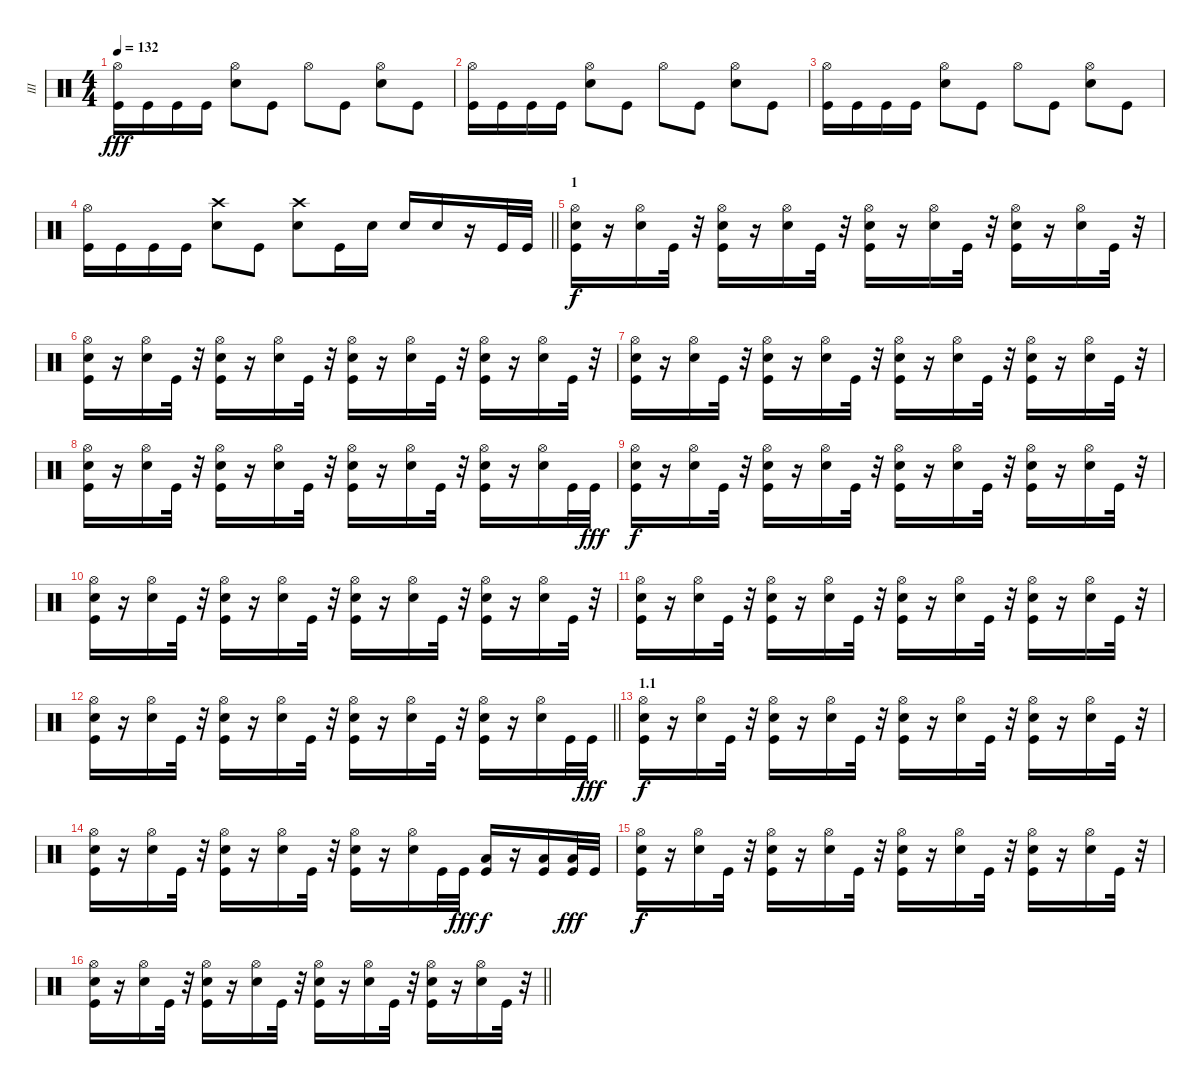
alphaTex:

\track ("III" "III") {instrument percussion}
\staff {score}
\articulation defaults
\ts (4 4)
\tempo 132
\clef neutral
\ks c
("Kick (hit)" "Hi-Hat (open)").16{dy fff} "Kick (hit)".16 "Kick (hit)".16 "Kick (hit)".16 ("Snare (hit) 2" "Hi-Hat (open)").8 "Kick (hit)".8 "Hi-Hat (open)".8 "Kick (hit)".8 ("Snare (hit) 2" "Hi-Hat (open)").8 "Kick (hit)".8 |
("Kick (hit)" "Hi-Hat (open)").16 "Kick (hit)".16 "Kick (hit)".16 "Kick (hit)".16 ("Snare (hit) 2" "Hi-Hat (open)").8 "Kick (hit)".8 "Hi-Hat (open)".8 "Kick (hit)".8 ("Snare (hit) 2" "Hi-Hat (open)").8 "Kick (hit)".8 |
("Kick (hit)" "Hi-Hat (open)").16 "Kick (hit)".16 "Kick (hit)".16 "Kick (hit)".16 ("Snare (hit) 2" "Hi-Hat (open)").8 "Kick (hit)".8 "Hi-Hat (open)".8 "Kick (hit)".8 ("Snare (hit) 2" "Hi-Hat (open)").8 "Kick (hit)".8 |
\barLineRight lightlight
("Kick (hit)" "Hi-Hat (open)").16 "Kick (hit)".16 "Kick (hit)".16 "Kick (hit)".16 ("Snare (hit) 2" "Crash high (hit)").8 "Kick (hit)".8 ("Snare (hit) 2" "Crash high (hit)").8 "Kick (hit)".16 "Snare (hit) 2".16 "Snare (hit) 2".16 "Snare (hit) 2".16 r.16 "Kick (hit)".32 "Kick (hit)".32 |
\section ("" "1")
("Hi-Hat (open)" "Kick (hit)" "Snare (hit) 2").16{dy f} r.16 ("Hi-Hat (open)" "Snare (hit) 2").16 "Kick (hit)".32 r.32 ("Hi-Hat (open)" "Kick (hit)" "Snare (hit) 2").16 r.16 ("Hi-Hat (open)" "Snare (hit) 2").16 "Kick (hit)".32 r.32 ("Hi-Hat (open)" "Kick (hit)" "Snare (hit) 2").16 r.16 ("Hi-Hat (open)" "Snare (hit) 2").16 "Kick (hit)".32 r.32 ("Hi-Hat (open)" "Kick (hit)" "Snare (hit) 2").16 r.16 ("Hi-Hat (open)" "Snare (hit) 2").16 "Kick (hit)".32 r.32 |
("Hi-Hat (open)" "Kick (hit)" "Snare (hit) 2").16 r.16 ("Hi-Hat (open)" "Snare (hit) 2").16 "Kick (hit)".32 r.32 ("Hi-Hat (open)" "Kick (hit)" "Snare (hit) 2").16 r.16 ("Hi-Hat (open)" "Snare (hit) 2").16 "Kick (hit)".32 r.32 ("Hi-Hat (open)" "Kick (hit)" "Snare (hit) 2").16 r.16 ("Hi-Hat (open)" "Snare (hit) 2").16 "Kick (hit)".32 r.32 ("Hi-Hat (open)" "Kick (hit)" "Snare (hit) 2").16 r.16 ("Hi-Hat (open)" "Snare (hit) 2").16 "Kick (hit)".32 r.32 |
("Hi-Hat (open)" "Kick (hit)" "Snare (hit) 2").16 r.16 ("Hi-Hat (open)" "Snare (hit) 2").16 "Kick (hit)".32 r.32 ("Hi-Hat (open)" "Kick (hit)" "Snare (hit) 2").16 r.16 ("Hi-Hat (open)" "Snare (hit) 2").16 "Kick (hit)".32 r.32 ("Hi-Hat (open)" "Kick (hit)" "Snare (hit) 2").16 r.16 ("Hi-Hat (open)" "Snare (hit) 2").16 "Kick (hit)".32 r.32 ("Hi-Hat (open)" "Kick (hit)" "Snare (hit) 2").16 r.16 ("Hi-Hat (open)" "Snare (hit) 2").16 "Kick (hit)".32 r.32 |
("Hi-Hat (open)" "Kick (hit)" "Snare (hit) 2").16 r.16 ("Hi-Hat (open)" "Snare (hit) 2").16 "Kick (hit)".32 r.32 ("Hi-Hat (open)" "Kick (hit)" "Snare (hit) 2").16 r.16 ("Hi-Hat (open)" "Snare (hit) 2").16 "Kick (hit)".32 r.32 ("Hi-Hat (open)" "Kick (hit)" "Snare (hit) 2").16 r.16 ("Hi-Hat (open)" "Snare (hit) 2").16 "Kick (hit)".32 r.32 ("Hi-Hat (open)" "Kick (hit)" "Snare (hit) 2").16 r.16 ("Hi-Hat (open)" "Snare (hit) 2").16 "Kick (hit)".32 "Kick (hit)".32{dy fff} |
("Hi-Hat (open)" "Kick (hit)" "Snare (hit) 2").16{dy f} r.16 ("Hi-Hat (open)" "Snare (hit) 2").16 "Kick (hit)".32 r.32 ("Hi-Hat (open)" "Kick (hit)" "Snare (hit) 2").16 r.16 ("Hi-Hat (open)" "Snare (hit) 2").16 "Kick (hit)".32 r.32 ("Hi-Hat (open)" "Kick (hit)" "Snare (hit) 2").16 r.16 ("Hi-Hat (open)" "Snare (hit) 2").16 "Kick (hit)".32 r.32 ("Hi-Hat (open)" "Kick (hit)" "Snare (hit) 2").16 r.16 ("Hi-Hat (open)" "Snare (hit) 2").16 "Kick (hit)".32 r.32 |
("Hi-Hat (open)" "Kick (hit)" "Snare (hit) 2").16 r.16 ("Hi-Hat (open)" "Snare (hit) 2").16 "Kick (hit)".32 r.32 ("Hi-Hat (open)" "Kick (hit)" "Snare (hit) 2").16 r.16 ("Hi-Hat (open)" "Snare (hit) 2").16 "Kick (hit)".32 r.32 ("Hi-Hat (open)" "Kick (hit)" "Snare (hit) 2").16 r.16 ("Hi-Hat (open)" "Snare (hit) 2").16 "Kick (hit)".32 r.32 ("Hi-Hat (open)" "Kick (hit)" "Snare (hit) 2").16 r.16 ("Hi-Hat (open)" "Snare (hit) 2").16 "Kick (hit)".32 r.32 |
("Hi-Hat (open)" "Kick (hit)" "Snare (hit) 2").16 r.16 ("Hi-Hat (open)" "Snare (hit) 2").16 "Kick (hit)".32 r.32 ("Hi-Hat (open)" "Kick (hit)" "Snare (hit) 2").16 r.16 ("Hi-Hat (open)" "Snare (hit) 2").16 "Kick (hit)".32 r.32 ("Hi-Hat (open)" "Kick (hit)" "Snare (hit) 2").16 r.16 ("Hi-Hat (open)" "Snare (hit) 2").16 "Kick (hit)".32 r.32 ("Hi-Hat (open)" "Kick (hit)" "Snare (hit) 2").16 r.16 ("Hi-Hat (open)" "Snare (hit) 2").16 "Kick (hit)".32 r.32 |
\barLineRight lightlight
("Hi-Hat (open)" "Kick (hit)" "Snare (hit) 2").16 r.16 ("Hi-Hat (open)" "Snare (hit) 2").16 "Kick (hit)".32 r.32 ("Hi-Hat (open)" "Kick (hit)" "Snare (hit) 2").16 r.16 ("Hi-Hat (open)" "Snare (hit) 2").16 "Kick (hit)".32 r.32 ("Hi-Hat (open)" "Kick (hit)" "Snare (hit) 2").16 r.16 ("Hi-Hat (open)" "Snare (hit) 2").16 "Kick (hit)".32 r.32 ("Hi-Hat (open)" "Kick (hit)" "Snare (hit) 2").16 r.16 ("Hi-Hat (open)" "Snare (hit) 2").16 "Kick (hit)".32 "Kick (hit)".32{dy fff} |
\section ("" "1.1")
("Hi-Hat (open)" "Kick (hit)" "Snare (hit) 2").16{dy f} r.16 ("Hi-Hat (open)" "Snare (hit) 2").16 "Kick (hit)".32 r.32 ("Hi-Hat (open)" "Kick (hit)" "Snare (hit) 2").16 r.16 ("Hi-Hat (open)" "Snare (hit) 2").16 "Kick (hit)".32 r.32 ("Hi-Hat (open)" "Kick (hit)" "Snare (hit) 2").16 r.16 ("Hi-Hat (open)" "Snare (hit) 2").16 "Kick (hit)".32 r.32 ("Hi-Hat (open)" "Kick (hit)" "Snare (hit) 2").16 r.16 ("Hi-Hat (open)" "Snare (hit) 2").16 "Kick (hit)".32 r.32 |
("Hi-Hat (open)" "Kick (hit)" "Snare (hit) 2").16 r.16 ("Hi-Hat (open)" "Snare (hit) 2").16 "Kick (hit)".32 r.32 ("Hi-Hat (open)" "Kick (hit)" "Snare (hit) 2").16 r.16 ("Hi-Hat (open)" "Snare (hit) 2").16 "Kick (hit)".32 r.32 ("Hi-Hat (open)" "Kick (hit)" "Snare (hit) 2").16 r.16 ("Hi-Hat (open)" "Snare (hit) 2").16 "Kick (hit)".32 "Kick (hit)".32{dy fff} ("Kick (hit)" "Low Tom (hit)").16{dy f} r.16 ("Kick (hit)" "Low Tom (hit)").16 ("Kick (hit)" "Low Tom (hit)").32{dy fff} "Kick (hit)".32 |
("Hi-Hat (open)" "Kick (hit)" "Snare (hit) 2").16{dy f} r.16 ("Hi-Hat (open)" "Snare (hit) 2").16 "Kick (hit)".32 r.32 ("Hi-Hat (open)" "Kick (hit)" "Snare (hit) 2").16 r.16 ("Hi-Hat (open)" "Snare (hit) 2").16 "Kick (hit)".32 r.32 ("Hi-Hat (open)" "Kick (hit)" "Snare (hit) 2").16 r.16 ("Hi-Hat (open)" "Snare (hit) 2").16 "Kick (hit)".32 r.32 ("Hi-Hat (open)" "Kick (hit)" "Snare (hit) 2").16 r.16 ("Hi-Hat (open)" "Snare (hit) 2").16 "Kick (hit)".32 r.32 |
\barLineRight lightlight
("Hi-Hat (open)" "Kick (hit)" "Snare (hit) 2").16 r.16 ("Hi-Hat (open)" "Snare (hit) 2").16 "Kick (hit)".32 r.32 ("Hi-Hat (open)" "Kick (hit)" "Snare (hit) 2").16 r.16 ("Hi-Hat (open)" "Snare (hit) 2").16 "Kick (hit)".32 r.32 ("Hi-Hat (open)" "Kick (hit)" "Snare (hit) 2").16 r.16 ("Hi-Hat (open)" "Snare (hit) 2").16 "Kick (hit)".32 r.32 ("Hi-Hat (open)" "Kick (hit)" "Snare (hit) 2").16 r.16 ("Hi-Hat (open)" "Snare (hit) 2").16 "Kick (hit)".32 r.32
